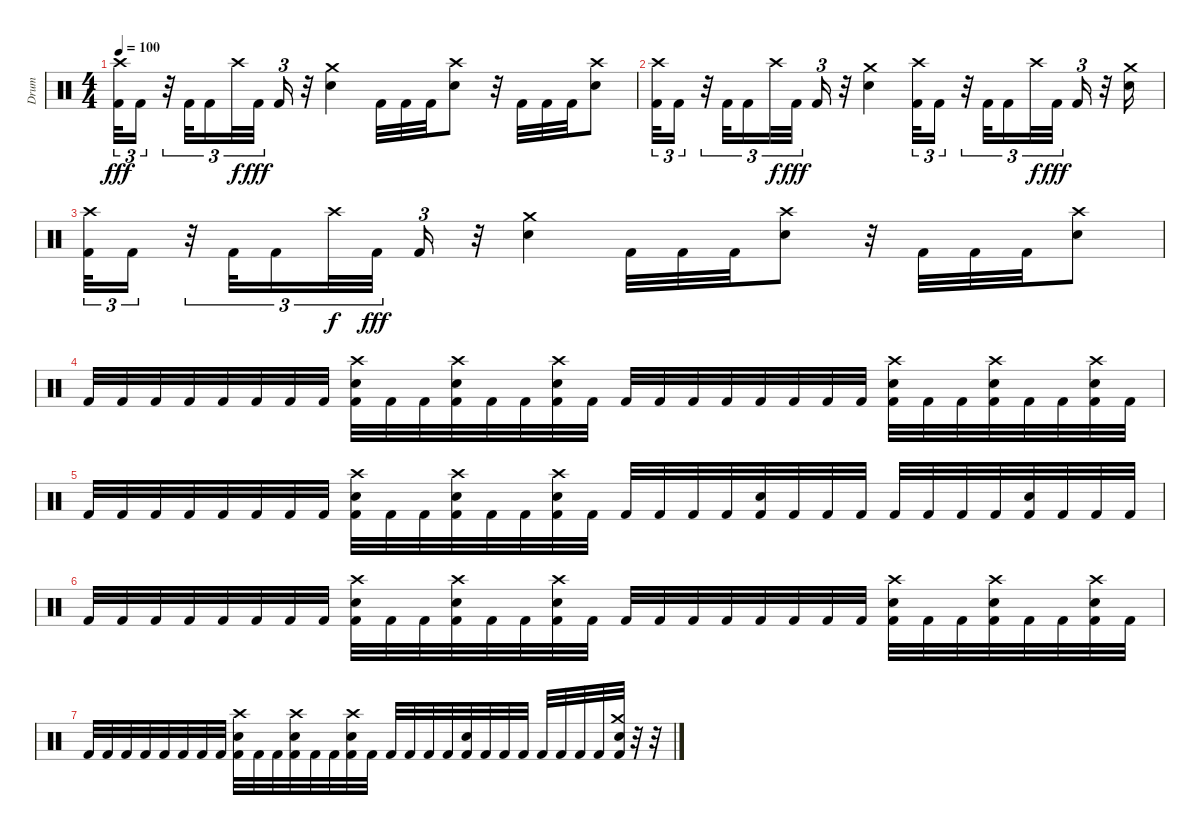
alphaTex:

\track ("Drum" "Drum") {instrument percussion}
\staff {score}
\articulation defaults
\ts (4 4)
\tempo 100
\clef neutral
\ks c
("Crash high (hit)" "Kick (hit) 2").32{tu (3 2) dy fff} "Kick (hit) 2".16{tu (3 2)} r.32{tu (3 2)} "Kick (hit) 2".32{tu (3 2)} "Kick (hit) 2".16{tu (3 2)} "Crash high (hit)".32{tu (3 2) dy f} "Kick (hit) 2".32{tu (3 2) dy fff beam splitsecondary} "Kick (hit) 2".16{tu (3 2)} r.32 ("Crash medium (hit)" "Electric Snare (hit)").4 "Kick (hit) 2".32 "Kick (hit) 2".32 "Kick (hit) 2".32 ("Crash high (hit)" "Electric Snare (hit)").8 r.32 "Kick (hit) 2".32 "Kick (hit) 2".32 "Kick (hit) 2".32 ("Crash high (hit)" "Electric Snare (hit)").8 |
("Crash high (hit)" "Kick (hit) 2").32{tu (3 2)} "Kick (hit) 2".16{tu (3 2)} r.32{tu (3 2)} "Kick (hit) 2".32{tu (3 2)} "Kick (hit) 2".16{tu (3 2)} "Crash high (hit)".32{tu (3 2) dy f} "Kick (hit) 2".32{tu (3 2) dy fff beam splitsecondary} "Kick (hit) 2".16{tu (3 2)} r.32 ("Crash medium (hit)" "Electric Snare (hit)").4 ("Crash high (hit)" "Kick (hit) 2").32{tu (3 2)} "Kick (hit) 2".16{tu (3 2)} r.32{tu (3 2)} "Kick (hit) 2".32{tu (3 2)} "Kick (hit) 2".16{tu (3 2)} "Crash high (hit)".32{tu (3 2) dy f} "Kick (hit) 2".32{tu (3 2) dy fff beam splitsecondary} "Kick (hit) 2".16{tu (3 2)} r.32 ("Crash medium (hit)" "Electric Snare (hit)").16 |
("Crash high (hit)" "Kick (hit) 2").32{tu (3 2)} "Kick (hit) 2".16{tu (3 2)} r.32{tu (3 2)} "Kick (hit) 2".32{tu (3 2)} "Kick (hit) 2".16{tu (3 2)} "Crash high (hit)".32{tu (3 2) dy f} "Kick (hit) 2".32{tu (3 2) dy fff beam splitsecondary} "Kick (hit) 2".16{tu (3 2)} r.32 ("Crash medium (hit)" "Electric Snare (hit)").4 "Kick (hit) 2".32 "Kick (hit) 2".32 "Kick (hit) 2".32 ("Crash high (hit)" "Electric Snare (hit)").8 r.32 "Kick (hit) 2".32 "Kick (hit) 2".32 "Kick (hit) 2".32 ("Crash high (hit)" "Electric Snare (hit)").8 |
"Kick (hit) 2".32 "Kick (hit) 2".32 "Kick (hit) 2".32 "Kick (hit) 2".32 "Kick (hit) 2".32 "Kick (hit) 2".32 "Kick (hit) 2".32 "Kick (hit) 2".32 ("Crash high (hit)" "Electric Snare (hit)" "Kick (hit) 2").32 "Kick (hit) 2".32 "Kick (hit) 2".32 ("Crash high (hit)" "Electric Snare (hit)" "Kick (hit) 2").32 "Kick (hit) 2".32 "Kick (hit) 2".32 ("Crash high (hit)" "Electric Snare (hit)" "Kick (hit) 2").32 "Kick (hit) 2".32 "Kick (hit) 2".32 "Kick (hit) 2".32 "Kick (hit) 2".32 "Kick (hit) 2".32 "Kick (hit) 2".32 "Kick (hit) 2".32 "Kick (hit) 2".32 "Kick (hit) 2".32 ("Crash high (hit)" "Electric Snare (hit)" "Kick (hit) 2").32 "Kick (hit) 2".32 "Kick (hit) 2".32 ("Crash high (hit)" "Electric Snare (hit)" "Kick (hit) 2").32 "Kick (hit) 2".32 "Kick (hit) 2".32 ("Crash high (hit)" "Electric Snare (hit)" "Kick (hit) 2").32 "Kick (hit) 2".32 |
"Kick (hit) 2".32 "Kick (hit) 2".32 "Kick (hit) 2".32 "Kick (hit) 2".32 "Kick (hit) 2".32 "Kick (hit) 2".32 "Kick (hit) 2".32 "Kick (hit) 2".32 ("Crash high (hit)" "Electric Snare (hit)" "Kick (hit) 2").32 "Kick (hit) 2".32 "Kick (hit) 2".32 ("Crash high (hit)" "Electric Snare (hit)" "Kick (hit) 2").32 "Kick (hit) 2".32 "Kick (hit) 2".32 ("Crash high (hit)" "Electric Snare (hit)" "Kick (hit) 2").32 "Kick (hit) 2".32 "Kick (hit) 2".32 "Kick (hit) 2".32 "Kick (hit) 2".32 "Kick (hit) 2".32 ("Electric Snare (hit)" "Kick (hit) 2").32 "Kick (hit) 2".32 "Kick (hit) 2".32 "Kick (hit) 2".32 "Kick (hit) 2".32 "Kick (hit) 2".32 "Kick (hit) 2".32 "Kick (hit) 2".32 ("Electric Snare (hit)" "Kick (hit) 2").32 "Kick (hit) 2".32 "Kick (hit) 2".32 "Kick (hit) 2".32 |
"Kick (hit) 2".32 "Kick (hit) 2".32 "Kick (hit) 2".32 "Kick (hit) 2".32 "Kick (hit) 2".32 "Kick (hit) 2".32 "Kick (hit) 2".32 "Kick (hit) 2".32 ("Crash high (hit)" "Electric Snare (hit)" "Kick (hit) 2").32 "Kick (hit) 2".32 "Kick (hit) 2".32 ("Crash high (hit)" "Electric Snare (hit)" "Kick (hit) 2").32 "Kick (hit) 2".32 "Kick (hit) 2".32 ("Crash high (hit)" "Electric Snare (hit)" "Kick (hit) 2").32 "Kick (hit) 2".32 "Kick (hit) 2".32 "Kick (hit) 2".32 "Kick (hit) 2".32 "Kick (hit) 2".32 "Kick (hit) 2".32 "Kick (hit) 2".32 "Kick (hit) 2".32 "Kick (hit) 2".32 ("Crash high (hit)" "Electric Snare (hit)" "Kick (hit) 2").32 "Kick (hit) 2".32 "Kick (hit) 2".32 ("Crash high (hit)" "Electric Snare (hit)" "Kick (hit) 2").32 "Kick (hit) 2".32 "Kick (hit) 2".32 ("Crash high (hit)" "Electric Snare (hit)" "Kick (hit) 2").32 "Kick (hit) 2".32 |
"Kick (hit) 2".32 "Kick (hit) 2".32 "Kick (hit) 2".32 "Kick (hit) 2".32 "Kick (hit) 2".32 "Kick (hit) 2".32 "Kick (hit) 2".32 "Kick (hit) 2".32 ("Crash high (hit)" "Electric Snare (hit)" "Kick (hit) 2").32 "Kick (hit) 2".32 "Kick (hit) 2".32 ("Crash high (hit)" "Electric Snare (hit)" "Kick (hit) 2").32 "Kick (hit) 2".32 "Kick (hit) 2".32 ("Crash high (hit)" "Electric Snare (hit)" "Kick (hit) 2").32 "Kick (hit) 2".32 "Kick (hit) 2".32 "Kick (hit) 2".32 "Kick (hit) 2".32 "Kick (hit) 2".32 ("Electric Snare (hit)" "Kick (hit) 2").32 "Kick (hit) 2".32 "Kick (hit) 2".32 "Kick (hit) 2".32 "Kick (hit) 2".32 "Kick (hit) 2".32 "Kick (hit) 2".32 "Kick (hit) 2".32 ("Crash medium (hit)" "Electric Snare (hit)" "Kick (hit) 2").32 r.32 r.32
